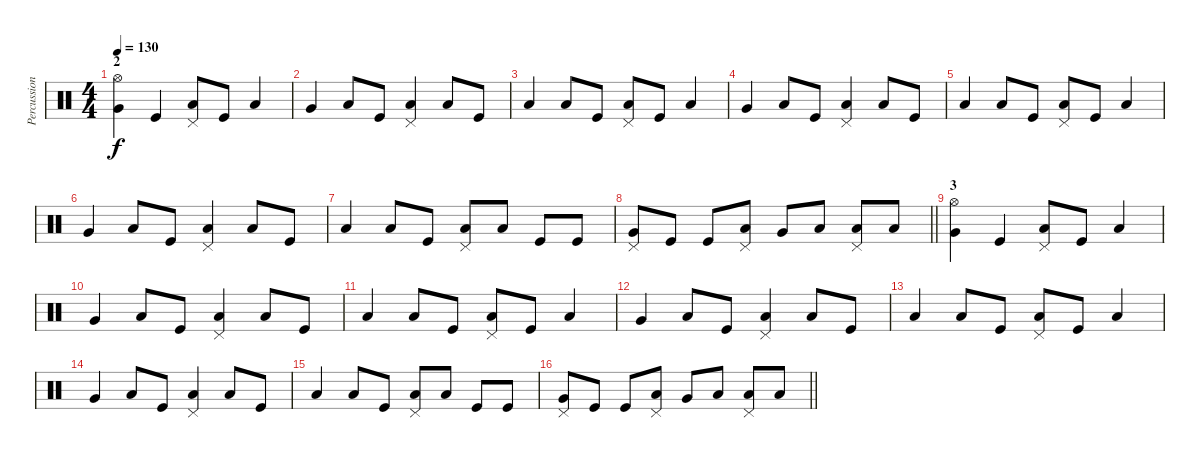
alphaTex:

\track ("Percussioni" "Percussion") {instrument percussion}
\staff {score}
\articulation defaults
\ts (4 4)
\section ("" "2")
\tempo 130
\clef neutral
\ks c
("Hi-Hat (open)" "Very Low Tom (hit)").4{dy f} "Kick (hit)".4 ("Low Floor Tom (hit)" "Pedal Hi-Hat (hit)").8 "Kick (hit)".8 "Low Floor Tom (hit)".4 |
"Very Low Tom (hit)".4 "Low Floor Tom (hit)".8 "Kick (hit)".8 ("Low Floor Tom (hit)" "Pedal Hi-Hat (hit)").4 "Low Floor Tom (hit)".8 "Kick (hit)".8 |
"Low Floor Tom (hit)".4 "Low Floor Tom (hit)".8 "Kick (hit)".8 ("Low Floor Tom (hit)" "Pedal Hi-Hat (hit)").8 "Kick (hit)".8 "Low Floor Tom (hit)".4 |
"Very Low Tom (hit)".4 "Low Floor Tom (hit)".8 "Kick (hit)".8 ("Low Floor Tom (hit)" "Pedal Hi-Hat (hit)").4 "Low Floor Tom (hit)".8 "Kick (hit)".8 |
"Low Floor Tom (hit)".4 "Low Floor Tom (hit)".8 "Kick (hit)".8 ("Low Floor Tom (hit)" "Pedal Hi-Hat (hit)").8 "Kick (hit)".8 "Low Floor Tom (hit)".4 |
"Very Low Tom (hit)".4 "Low Floor Tom (hit)".8 "Kick (hit)".8 ("Low Floor Tom (hit)" "Pedal Hi-Hat (hit)").4 "Low Floor Tom (hit)".8 "Kick (hit)".8 |
"Low Floor Tom (hit)".4 "Low Floor Tom (hit)".8 "Kick (hit)".8 ("Low Floor Tom (hit)" "Pedal Hi-Hat (hit)").8 "Low Floor Tom (hit)".8 "Kick (hit)".8 "Kick (hit)".8 |
\barLineRight lightlight
("Very Low Tom (hit)" "Pedal Hi-Hat (hit)").8 "Kick (hit)".8 "Kick (hit)".8 ("Low Floor Tom (hit)" "Pedal Hi-Hat (hit)").8 "Very Low Tom (hit)".8 "Low Floor Tom (hit)".8 ("Low Floor Tom (hit)" "Pedal Hi-Hat (hit)").8 "Low Floor Tom (hit)".8 |
\section ("" "3")
("Hi-Hat (open)" "Very Low Tom (hit)").4 "Kick (hit)".4 ("Low Floor Tom (hit)" "Pedal Hi-Hat (hit)").8 "Kick (hit)".8 "Low Floor Tom (hit)".4 |
"Very Low Tom (hit)".4 "Low Floor Tom (hit)".8 "Kick (hit)".8 ("Low Floor Tom (hit)" "Pedal Hi-Hat (hit)").4 "Low Floor Tom (hit)".8 "Kick (hit)".8 |
"Low Floor Tom (hit)".4 "Low Floor Tom (hit)".8 "Kick (hit)".8 ("Low Floor Tom (hit)" "Pedal Hi-Hat (hit)").8 "Kick (hit)".8 "Low Floor Tom (hit)".4 |
"Very Low Tom (hit)".4 "Low Floor Tom (hit)".8 "Kick (hit)".8 ("Low Floor Tom (hit)" "Pedal Hi-Hat (hit)").4 "Low Floor Tom (hit)".8 "Kick (hit)".8 |
"Low Floor Tom (hit)".4 "Low Floor Tom (hit)".8 "Kick (hit)".8 ("Low Floor Tom (hit)" "Pedal Hi-Hat (hit)").8 "Kick (hit)".8 "Low Floor Tom (hit)".4 |
"Very Low Tom (hit)".4 "Low Floor Tom (hit)".8 "Kick (hit)".8 ("Low Floor Tom (hit)" "Pedal Hi-Hat (hit)").4 "Low Floor Tom (hit)".8 "Kick (hit)".8 |
"Low Floor Tom (hit)".4 "Low Floor Tom (hit)".8 "Kick (hit)".8 ("Low Floor Tom (hit)" "Pedal Hi-Hat (hit)").8 "Low Floor Tom (hit)".8 "Kick (hit)".8 "Kick (hit)".8 |
\barLineRight lightlight
("Very Low Tom (hit)" "Pedal Hi-Hat (hit)").8 "Kick (hit)".8 "Kick (hit)".8 ("Low Floor Tom (hit)" "Pedal Hi-Hat (hit)").8 "Very Low Tom (hit)".8 "Low Floor Tom (hit)".8 ("Low Floor Tom (hit)" "Pedal Hi-Hat (hit)").8 "Low Floor Tom (hit)".8
